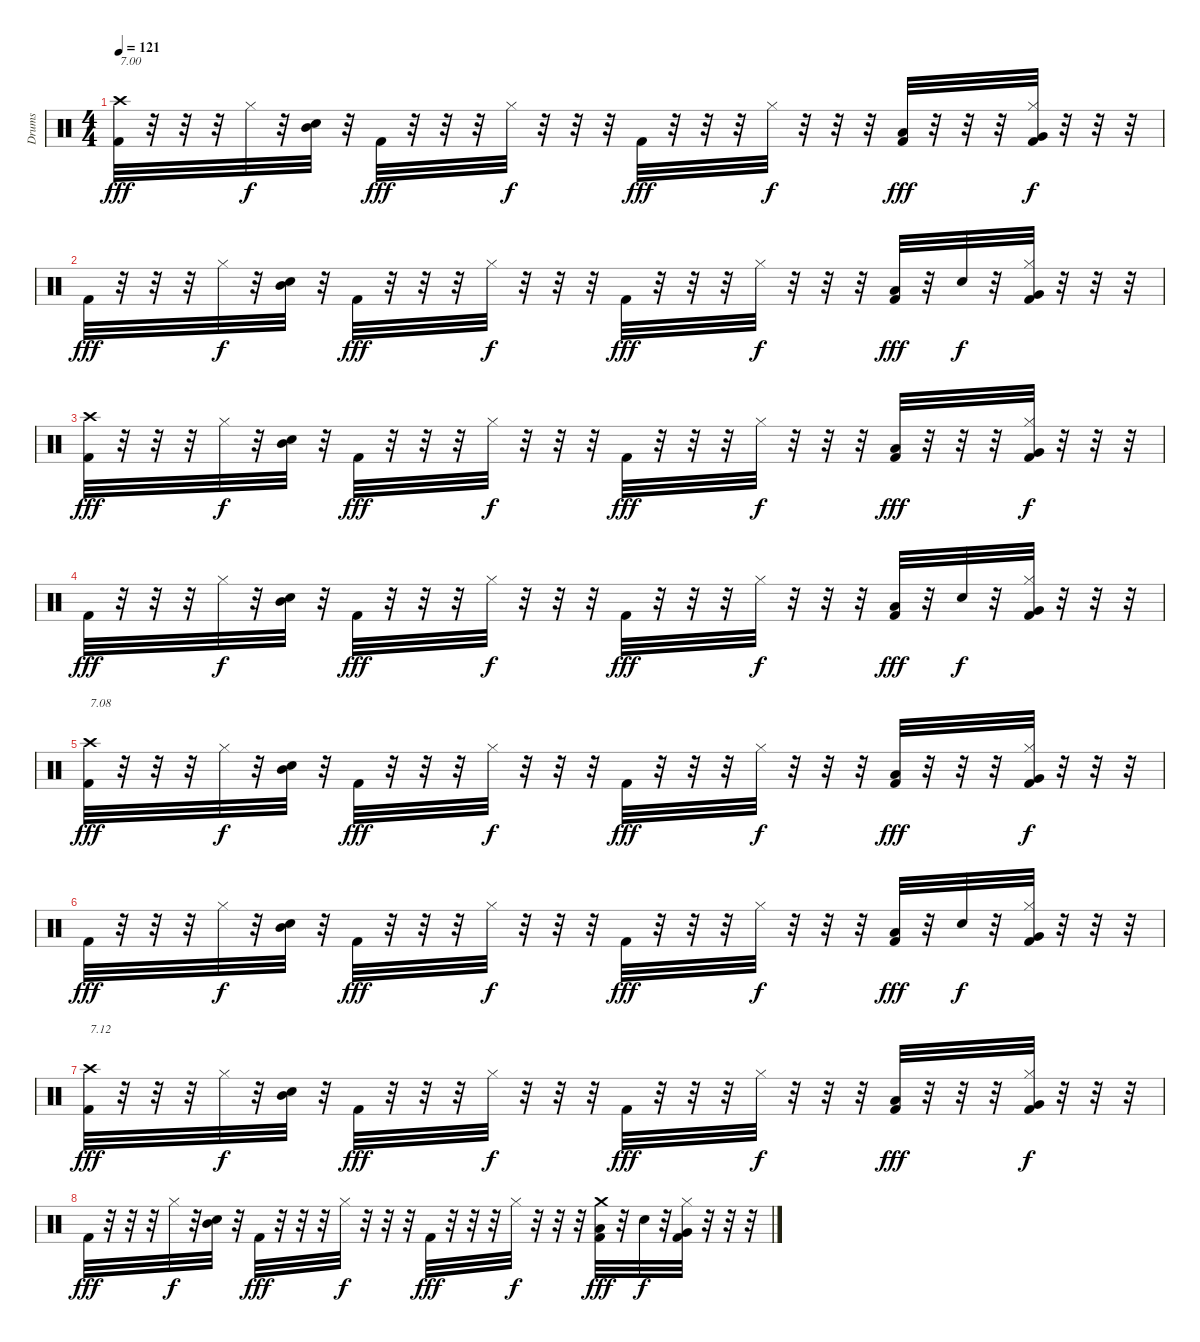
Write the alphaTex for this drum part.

\track ("Drums" "Drums") {instrument percussion}
\staff {score}
\articulation defaults
\ts (4 4)
\tempo 121
\clef neutral
\ks c
("Kick (hit) 2" "Crash high (hit)").32{txt "7.00" dy fff} r.32 r.32 r.32 "Hi-Hat (closed)".32{dy f} r.32 ("Mid Tom (hit)" "Snare (hit) 2").32 r.32 "Kick (hit) 2".32{dy fff} r.32 r.32 r.32 "Hi-Hat (closed)".32{dy f} r.32 r.32 r.32 "Kick (hit) 2".32{dy fff} r.32 r.32 r.32 "Hi-Hat (closed)".32{dy f} r.32 r.32 r.32 ("Kick (hit) 2" "Low Tom (hit)").32{dy fff} r.32 r.32 r.32 ("Hi-Hat (closed)" "Kick (hit) 2" "Very Low Tom (hit)").32{dy f} r.32 r.32 r.32 |
"Kick (hit) 2".32{dy fff} r.32 r.32 r.32 "Hi-Hat (closed)".32{dy f} r.32 ("Mid Tom (hit)" "Snare (hit) 2").32 r.32 "Kick (hit) 2".32{dy fff} r.32 r.32 r.32 "Hi-Hat (closed)".32{dy f} r.32 r.32 r.32 "Kick (hit) 2".32{dy fff} r.32 r.32 r.32 "Hi-Hat (closed)".32{dy f} r.32 r.32 r.32 ("Kick (hit) 2" "Low Tom (hit)").32{dy fff} r.32 "Snare (hit) 2".32{dy f} r.32 ("Hi-Hat (closed)" "Kick (hit) 2" "Very Low Tom (hit)").32 r.32 r.32 r.32 |
("Kick (hit) 2" "Crash high (hit)").32{dy fff} r.32 r.32 r.32 "Hi-Hat (closed)".32{dy f} r.32 ("Mid Tom (hit)" "Snare (hit) 2").32 r.32 "Kick (hit) 2".32{dy fff} r.32 r.32 r.32 "Hi-Hat (closed)".32{dy f} r.32 r.32 r.32 "Kick (hit) 2".32{dy fff} r.32 r.32 r.32 "Hi-Hat (closed)".32{dy f} r.32 r.32 r.32 ("Kick (hit) 2" "Low Tom (hit)").32{dy fff} r.32 r.32 r.32 ("Hi-Hat (closed)" "Kick (hit) 2" "Very Low Tom (hit)").32{dy f} r.32 r.32 r.32 |
"Kick (hit) 2".32{dy fff} r.32 r.32 r.32 "Hi-Hat (closed)".32{dy f} r.32 ("Mid Tom (hit)" "Snare (hit) 2").32 r.32 "Kick (hit) 2".32{dy fff} r.32 r.32 r.32 "Hi-Hat (closed)".32{dy f} r.32 r.32 r.32 "Kick (hit) 2".32{dy fff} r.32 r.32 r.32 "Hi-Hat (closed)".32{dy f} r.32 r.32 r.32 ("Kick (hit) 2" "Low Tom (hit)").32{dy fff} r.32 "Snare (hit) 2".32{dy f} r.32 ("Hi-Hat (closed)" "Kick (hit) 2" "Very Low Tom (hit)").32 r.32 r.32 r.32 |
("Kick (hit) 2" "Crash high (hit)").32{txt "7.08" dy fff} r.32 r.32 r.32 "Hi-Hat (closed)".32{dy f} r.32 ("Mid Tom (hit)" "Snare (hit) 2").32 r.32 "Kick (hit) 2".32{dy fff} r.32 r.32 r.32 "Hi-Hat (closed)".32{dy f} r.32 r.32 r.32 "Kick (hit) 2".32{dy fff} r.32 r.32 r.32 "Hi-Hat (closed)".32{dy f} r.32 r.32 r.32 ("Kick (hit) 2" "Low Tom (hit)").32{dy fff} r.32 r.32 r.32 ("Hi-Hat (closed)" "Kick (hit) 2" "Very Low Tom (hit)").32{dy f} r.32 r.32 r.32 |
"Kick (hit) 2".32{dy fff} r.32 r.32 r.32 "Hi-Hat (closed)".32{dy f} r.32 ("Mid Tom (hit)" "Snare (hit) 2").32 r.32 "Kick (hit) 2".32{dy fff} r.32 r.32 r.32 "Hi-Hat (closed)".32{dy f} r.32 r.32 r.32 "Kick (hit) 2".32{dy fff} r.32 r.32 r.32 "Hi-Hat (closed)".32{dy f} r.32 r.32 r.32 ("Kick (hit) 2" "Low Tom (hit)").32{dy fff} r.32 "Snare (hit) 2".32{dy f} r.32 ("Hi-Hat (closed)" "Kick (hit) 2" "Very Low Tom (hit)").32 r.32 r.32 r.32 |
("Kick (hit) 2" "Crash high (hit)").32{txt "7.12" dy fff} r.32 r.32 r.32 "Hi-Hat (closed)".32{dy f} r.32 ("Mid Tom (hit)" "Snare (hit) 2").32 r.32 "Kick (hit) 2".32{dy fff} r.32 r.32 r.32 "Hi-Hat (closed)".32{dy f} r.32 r.32 r.32 "Kick (hit) 2".32{dy fff} r.32 r.32 r.32 "Hi-Hat (closed)".32{dy f} r.32 r.32 r.32 ("Kick (hit) 2" "Low Tom (hit)").32{dy fff} r.32 r.32 r.32 ("Hi-Hat (closed)" "Kick (hit) 2" "Very Low Tom (hit)").32{dy f} r.32 r.32 r.32 |
"Kick (hit) 2".32{dy fff} r.32 r.32 r.32 "Hi-Hat (closed)".32{dy f} r.32 ("Mid Tom (hit)" "Snare (hit) 2").32 r.32 "Kick (hit) 2".32{dy fff} r.32 r.32 r.32 "Hi-Hat (closed)".32{dy f} r.32 r.32 r.32 "Kick (hit) 2".32{dy fff} r.32 r.32 r.32 "Hi-Hat (closed)".32{dy f} r.32 r.32 r.32 ("Kick (hit) 2" "Crash medium (hit)" "Low Tom (hit)").32{dy fff} r.32 "Snare (hit) 2".32{dy f} r.32 ("Hi-Hat (closed)" "Kick (hit) 2" "Very Low Tom (hit)").32 r.32 r.32 r.32
